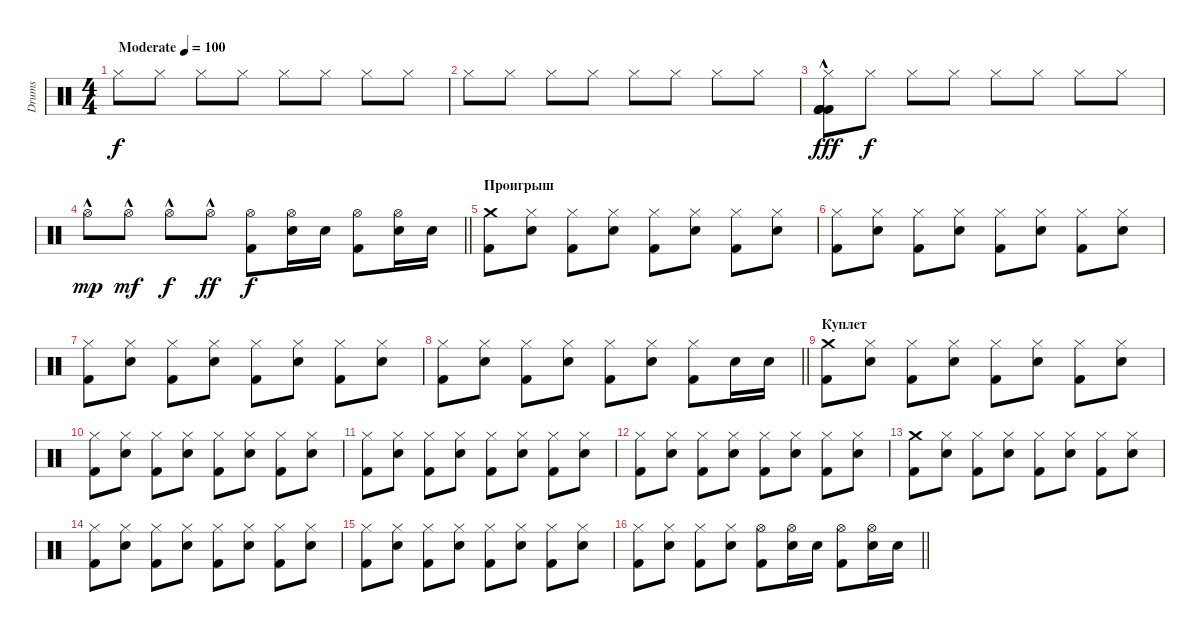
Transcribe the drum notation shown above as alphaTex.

\track ("Drums" "Drums") {instrument percussion}
\staff {score}
\articulation defaults
\ts (4 4)
\tempo (100 "Moderate")
\clef neutral
\ks c "Hi-Hat (closed)".8{dy f} "Hi-Hat (closed)".8 "Hi-Hat (closed)".8 "Hi-Hat (closed)".8 "Hi-Hat (closed)".8 "Hi-Hat (closed)".8 "Hi-Hat (closed)".8 "Hi-Hat (closed)".8
|
"Hi-Hat (closed)".8 "Hi-Hat (closed)".8 "Hi-Hat (closed)".8 "Hi-Hat (closed)".8 "Hi-Hat (closed)".8 "Hi-Hat (closed)".8 "Hi-Hat (closed)".8 "Hi-Hat (closed)".8 |
("Hi-Hat (closed)"{hac} "Kick (hit) 2"{hac} "Kick (hit) 2"{hac} "Kick (hit) 2"{hac} "Kick (hit) 2"{hac} "Kick (hit) 2"{hac}).8{dy fff} "Hi-Hat (closed)".8{dy f} "Hi-Hat (closed)".8 "Hi-Hat (closed)".8 "Hi-Hat (closed)".8 "Hi-Hat (closed)".8 "Hi-Hat (closed)".8 "Hi-Hat (closed)".8 |
\barLineRight lightlight "Hi-Hat (open)"{hac}.8{dy mp} "Hi-Hat (open)"{hac}.8{dy mf} "Hi-Hat (open)"{hac}.8{dy f} "Hi-Hat (open)"{hac}.8{dy ff}
("Hi-Hat (open)" "Kick (hit) 2").8{dy f} ("Hi-Hat (open)" "Snare (hit) 2").16 "Snare (hit) 2".16 ("Hi-Hat (open)" "Kick (hit) 2").8 ("Hi-Hat (open)" "Snare (hit) 2").16 "Snare (hit) 2".16 |
\section ("" "Проигрыш")
("Crash medium (hit)" "Kick (hit) 2").8 ("Hi-Hat (closed)" "Snare (hit) 2").8 ("Hi-Hat (closed)" "Kick (hit) 2").8 ("Hi-Hat (closed)" "Snare (hit) 2").8 ("Hi-Hat (closed)" "Kick (hit) 2").8 ("Hi-Hat (closed)" "Snare (hit) 2").8 ("Hi-Hat (closed)" "Kick (hit) 2").8 ("Hi-Hat (closed)" "Snare (hit) 2").8 |
("Hi-Hat (closed)" "Kick (hit) 2").8 ("Hi-Hat (closed)" "Snare (hit) 2").8 ("Hi-Hat (closed)" "Kick (hit) 2").8 ("Hi-Hat (closed)" "Snare (hit) 2").8 ("Hi-Hat (closed)" "Kick (hit) 2").8 ("Hi-Hat (closed)" "Snare (hit) 2").8 ("Hi-Hat (closed)" "Kick (hit) 2").8 ("Hi-Hat (closed)" "Snare (hit) 2").8 |
("Hi-Hat (closed)" "Kick (hit) 2").8 ("Hi-Hat (closed)" "Snare (hit) 2").8 ("Hi-Hat (closed)" "Kick (hit) 2").8 ("Hi-Hat (closed)" "Snare (hit) 2").8 ("Hi-Hat (closed)" "Kick (hit) 2").8 ("Hi-Hat (closed)" "Snare (hit) 2").8 ("Hi-Hat (closed)" "Kick (hit) 2").8 ("Hi-Hat (closed)" "Snare (hit) 2").8 |
\barLineRight lightlight
("Hi-Hat (closed)" "Kick (hit) 2").8 ("Hi-Hat (closed)" "Snare (hit) 2").8 ("Hi-Hat (closed)" "Kick (hit) 2").8 ("Hi-Hat (closed)" "Snare (hit) 2").8 ("Hi-Hat (closed)" "Kick (hit) 2").8 ("Hi-Hat (closed)" "Snare (hit) 2").8 ("Hi-Hat (closed)" "Kick (hit) 2").8 "Snare (hit) 2".16 "Snare (hit) 2".16 |
\section ("" "Куплет")
("Crash medium (hit)" "Kick (hit) 2").8 ("Hi-Hat (closed)" "Snare (hit) 2").8 ("Hi-Hat (closed)" "Kick (hit) 2").8 ("Hi-Hat (closed)" "Snare (hit) 2").8 ("Hi-Hat (closed)" "Kick (hit) 2").8 ("Hi-Hat (closed)" "Snare (hit) 2").8 ("Hi-Hat (closed)" "Kick (hit) 2").8 ("Hi-Hat (closed)" "Snare (hit) 2").8 |
("Hi-Hat (closed)" "Kick (hit) 2").8 ("Hi-Hat (closed)" "Snare (hit) 2").8 ("Hi-Hat (closed)" "Kick (hit) 2").8 ("Hi-Hat (closed)" "Snare (hit) 2").8 ("Hi-Hat (closed)" "Kick (hit) 2").8 ("Hi-Hat (closed)" "Snare (hit) 2").8 ("Hi-Hat (closed)" "Kick (hit) 2").8 ("Hi-Hat (closed)" "Snare (hit) 2").8 |
("Hi-Hat (closed)" "Kick (hit) 2").8 ("Hi-Hat (closed)" "Snare (hit) 2").8 ("Hi-Hat (closed)" "Kick (hit) 2").8 ("Hi-Hat (closed)" "Snare (hit) 2").8 ("Hi-Hat (closed)" "Kick (hit) 2").8 ("Hi-Hat (closed)" "Snare (hit) 2").8 ("Hi-Hat (closed)" "Kick (hit) 2").8 ("Hi-Hat (closed)" "Snare (hit) 2").8 |
("Hi-Hat (closed)" "Kick (hit) 2").8 ("Hi-Hat (closed)" "Snare (hit) 2").8 ("Hi-Hat (closed)" "Kick (hit) 2").8 ("Hi-Hat (closed)" "Snare (hit) 2").8 ("Hi-Hat (closed)" "Kick (hit) 2").8 ("Hi-Hat (closed)" "Snare (hit) 2").8 ("Hi-Hat (closed)" "Kick (hit) 2").8 ("Hi-Hat (closed)" "Snare (hit) 2").8 |
("Crash medium (hit)" "Kick (hit) 2").8 ("Hi-Hat (closed)" "Snare (hit) 2").8 ("Hi-Hat (closed)" "Kick (hit) 2").8 ("Hi-Hat (closed)" "Snare (hit) 2").8 ("Hi-Hat (closed)" "Kick (hit) 2").8 ("Hi-Hat (closed)" "Snare (hit) 2").8 ("Hi-Hat (closed)" "Kick (hit) 2").8 ("Hi-Hat (closed)" "Snare (hit) 2").8 |
("Hi-Hat (closed)" "Kick (hit) 2").8 ("Hi-Hat (closed)" "Snare (hit) 2").8 ("Hi-Hat (closed)" "Kick (hit) 2").8 ("Hi-Hat (closed)" "Snare (hit) 2").8 ("Hi-Hat (closed)" "Kick (hit) 2").8 ("Hi-Hat (closed)" "Snare (hit) 2").8 ("Hi-Hat (closed)" "Kick (hit) 2").8 ("Hi-Hat (closed)" "Snare (hit) 2").8 |
("Hi-Hat (closed)" "Kick (hit) 2").8 ("Hi-Hat (closed)" "Snare (hit) 2").8 ("Hi-Hat (closed)" "Kick (hit) 2").8 ("Hi-Hat (closed)" "Snare (hit) 2").8 ("Hi-Hat (closed)" "Kick (hit) 2").8 ("Hi-Hat (closed)" "Snare (hit) 2").8 ("Hi-Hat (closed)" "Kick (hit) 2").8 ("Hi-Hat (closed)" "Snare (hit) 2").8 |
\barLineRight lightlight
("Hi-Hat (closed)" "Kick (hit) 2").8 ("Hi-Hat (closed)" "Snare (hit) 2").8 ("Hi-Hat (closed)" "Kick (hit) 2").8 ("Hi-Hat (closed)" "Snare (hit) 2").8 ("Hi-Hat (open)" "Kick (hit) 2").8 ("Hi-Hat (open)" "Snare (hit) 2").16 "Snare (hit) 2".16 ("Hi-Hat (open)" "Kick (hit) 2").8 ("Hi-Hat (open)" "Snare (hit) 2").16 "Snare (hit) 2".16
